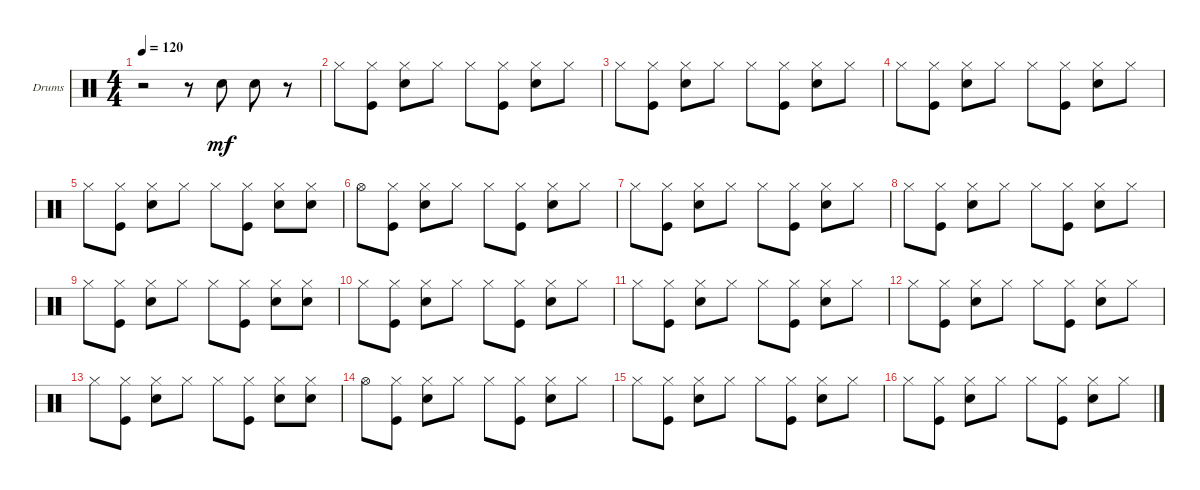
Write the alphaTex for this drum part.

\bracketExtendMode groupsimilarinstruments
\firstSystemTrackNameOrientation horizontal
\otherSystemsTrackNameOrientation horizontal
\track ("Drumkit" "Drums") {solo instrument percussion}
\staff {score}
\articulation defaults
\ts (4 4)
\tempo 120
\clef neutral
\ks c
r.2{dy mf} r.8 "Snare (hit) 2".8 "Snare (hit) 2".8 r.8 |
"Hi-Hat (closed)".8 ("Kick (hit)" "Hi-Hat (closed)").8 ("Snare (hit) 2" "Hi-Hat (closed)").8 "Hi-Hat (closed)".8 "Hi-Hat (closed)".8 ("Kick (hit)" "Hi-Hat (closed)").8 ("Snare (hit) 2" "Hi-Hat (closed)").8 "Hi-Hat (closed)".8 |
"Hi-Hat (closed)".8 ("Kick (hit)" "Hi-Hat (closed)").8 ("Snare (hit) 2" "Hi-Hat (closed)").8 "Hi-Hat (closed)".8 "Hi-Hat (closed)".8 ("Kick (hit)" "Hi-Hat (closed)").8 ("Snare (hit) 2" "Hi-Hat (closed)").8 "Hi-Hat (closed)".8 |
"Hi-Hat (closed)".8 ("Kick (hit)" "Hi-Hat (closed)").8 ("Hi-Hat (closed)" "Snare (hit) 2").8 "Hi-Hat (closed)".8 "Hi-Hat (closed)".8 ("Kick (hit)" "Hi-Hat (closed)").8 ("Snare (hit) 2" "Hi-Hat (closed)").8 "Hi-Hat (closed)".8 |
"Hi-Hat (closed)".8 ("Kick (hit)" "Hi-Hat (closed)").8 ("Snare (hit) 2" "Hi-Hat (closed)").8 "Hi-Hat (closed)".8 "Hi-Hat (closed)".8 ("Kick (hit)" "Hi-Hat (closed)").8 ("Snare (hit) 2" "Hi-Hat (closed)").8 ("Hi-Hat (closed)" "Snare (hit) 2").8 |
"Hi-Hat (open)".8 ("Kick (hit)" "Hi-Hat (closed)").8 ("Snare (hit) 2" "Hi-Hat (closed)").8 "Hi-Hat (closed)".8 "Hi-Hat (closed)".8 ("Kick (hit)" "Hi-Hat (closed)").8 ("Snare (hit) 2" "Hi-Hat (closed)").8 "Hi-Hat (closed)".8 |
"Hi-Hat (closed)".8 ("Kick (hit)" "Hi-Hat (closed)").8 ("Snare (hit) 2" "Hi-Hat (closed)").8 "Hi-Hat (closed)".8 "Hi-Hat (closed)".8 ("Kick (hit)" "Hi-Hat (closed)").8 ("Snare (hit) 2" "Hi-Hat (closed)").8 "Hi-Hat (closed)".8 |
"Hi-Hat (closed)".8 ("Kick (hit)" "Hi-Hat (closed)").8 ("Hi-Hat (closed)" "Snare (hit) 2").8 "Hi-Hat (closed)".8 "Hi-Hat (closed)".8 ("Kick (hit)" "Hi-Hat (closed)").8 ("Snare (hit) 2" "Hi-Hat (closed)").8 "Hi-Hat (closed)".8 |
"Hi-Hat (closed)".8 ("Kick (hit)" "Hi-Hat (closed)").8 ("Snare (hit) 2" "Hi-Hat (closed)").8 "Hi-Hat (closed)".8 "Hi-Hat (closed)".8 ("Kick (hit)" "Hi-Hat (closed)").8 ("Snare (hit) 2" "Hi-Hat (closed)").8 ("Hi-Hat (closed)" "Snare (hit) 2").8 |
"Hi-Hat (closed)".8 ("Kick (hit)" "Hi-Hat (closed)").8 ("Snare (hit) 2" "Hi-Hat (closed)").8 "Hi-Hat (closed)".8 "Hi-Hat (closed)".8 ("Kick (hit)" "Hi-Hat (closed)").8 ("Snare (hit) 2" "Hi-Hat (closed)").8 "Hi-Hat (closed)".8 |
"Hi-Hat (closed)".8 ("Kick (hit)" "Hi-Hat (closed)").8 ("Snare (hit) 2" "Hi-Hat (closed)").8 "Hi-Hat (closed)".8 "Hi-Hat (closed)".8 ("Kick (hit)" "Hi-Hat (closed)").8 ("Snare (hit) 2" "Hi-Hat (closed)").8 "Hi-Hat (closed)".8 |
"Hi-Hat (closed)".8 ("Kick (hit)" "Hi-Hat (closed)").8 ("Hi-Hat (closed)" "Snare (hit) 2").8 "Hi-Hat (closed)".8 "Hi-Hat (closed)".8 ("Kick (hit)" "Hi-Hat (closed)").8 ("Snare (hit) 2" "Hi-Hat (closed)").8 "Hi-Hat (closed)".8 |
"Hi-Hat (closed)".8 ("Kick (hit)" "Hi-Hat (closed)").8 ("Snare (hit) 2" "Hi-Hat (closed)").8 "Hi-Hat (closed)".8 "Hi-Hat (closed)".8 ("Kick (hit)" "Hi-Hat (closed)").8 ("Snare (hit) 2" "Hi-Hat (closed)").8 ("Hi-Hat (closed)" "Snare (hit) 2").8 |
"Hi-Hat (open)".8 ("Kick (hit)" "Hi-Hat (closed)").8 ("Snare (hit) 2" "Hi-Hat (closed)").8 "Hi-Hat (closed)".8 "Hi-Hat (closed)".8 ("Kick (hit)" "Hi-Hat (closed)").8 ("Snare (hit) 2" "Hi-Hat (closed)").8 "Hi-Hat (closed)".8 |
"Hi-Hat (closed)".8 ("Kick (hit)" "Hi-Hat (closed)").8 ("Snare (hit) 2" "Hi-Hat (closed)").8 "Hi-Hat (closed)".8 "Hi-Hat (closed)".8 ("Kick (hit)" "Hi-Hat (closed)").8 ("Snare (hit) 2" "Hi-Hat (closed)").8 "Hi-Hat (closed)".8 |
"Hi-Hat (closed)".8 ("Kick (hit)" "Hi-Hat (closed)").8 ("Hi-Hat (closed)" "Snare (hit) 2").8 "Hi-Hat (closed)".8 "Hi-Hat (closed)".8 ("Kick (hit)" "Hi-Hat (closed)").8 ("Snare (hit) 2" "Hi-Hat (closed)").8 "Hi-Hat (closed)".8
